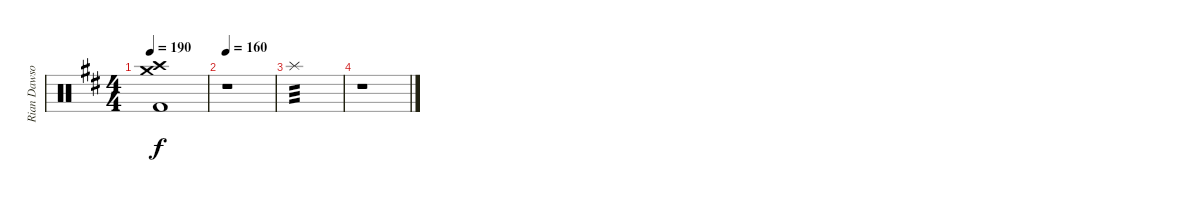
\track ("Rian Dawson" "Rian Dawso") {instrument percussion}
\staff {score}
\articulation defaults
\ts (4 4)
\tempo 190
\clef neutral
\ks d
("Crash high (hit)" "Crash medium (hit)" "Kick (hit) 2").1{dy f} |
\tempo 160
r.1 |
"Splash (hit)".1{tp 3} |
r.1
